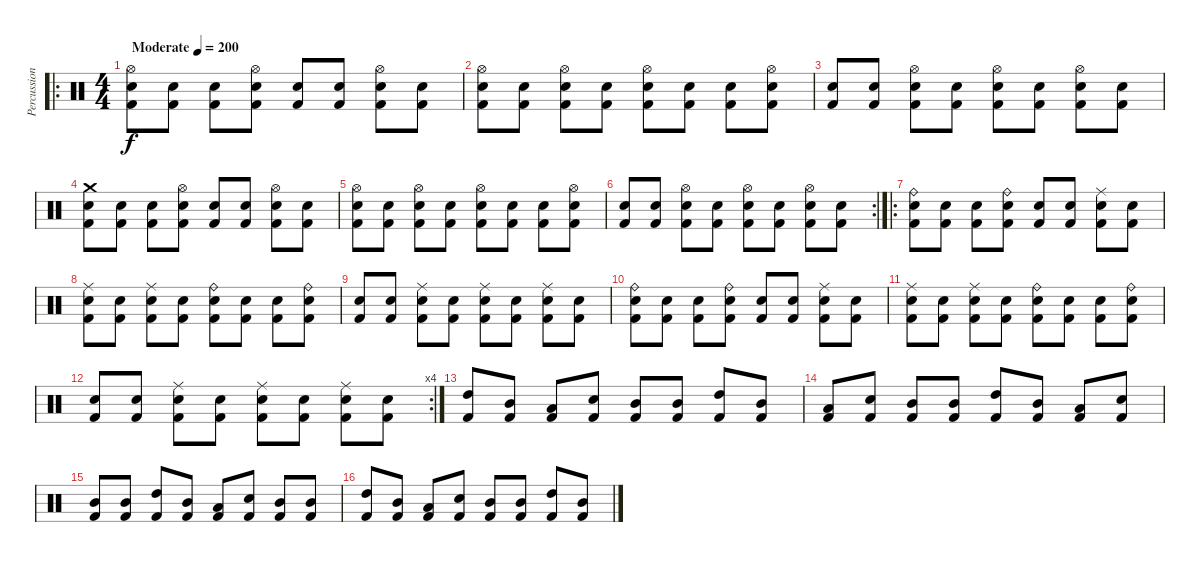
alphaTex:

\track ("Percussion" "Percussion") {instrument percussion}
\staff {score}
\articulation defaults
\ro
\ts (4 4)
\tempo (200 "Moderate")
\clef neutral
\ks c
("Hi-Hat (open)" "Electric Snare (hit)" "Kick (hit) 2").8{dy f} ("Electric Snare (hit)" "Kick (hit) 2").8 ("Electric Snare (hit)" "Kick (hit) 2").8 ("Hi-Hat (open)" "Electric Snare (hit)" "Kick (hit) 2").8 ("Electric Snare (hit)" "Kick (hit) 2").8 ("Electric Snare (hit)" "Kick (hit) 2").8 ("Hi-Hat (open)" "Electric Snare (hit)" "Kick (hit) 2").8 ("Electric Snare (hit)" "Kick (hit) 2").8 |
("Hi-Hat (open)" "Electric Snare (hit)" "Kick (hit) 2").8 ("Electric Snare (hit)" "Kick (hit) 2").8 ("Hi-Hat (open)" "Electric Snare (hit)" "Kick (hit) 2").8 ("Electric Snare (hit)" "Kick (hit) 2").8 ("Hi-Hat (open)" "Electric Snare (hit)" "Kick (hit) 2").8 ("Electric Snare (hit)" "Kick (hit) 2").8 ("Electric Snare (hit)" "Kick (hit) 2").8 ("Hi-Hat (open)" "Electric Snare (hit)" "Kick (hit) 2").8 |
("Electric Snare (hit)" "Kick (hit) 2").8 ("Electric Snare (hit)" "Kick (hit) 2").8 ("Hi-Hat (open)" "Electric Snare (hit)" "Kick (hit) 2").8 ("Electric Snare (hit)" "Kick (hit) 2").8 ("Hi-Hat (open)" "Electric Snare (hit)" "Kick (hit) 2").8 ("Electric Snare (hit)" "Kick (hit) 2").8 ("Hi-Hat (open)" "Electric Snare (hit)" "Kick (hit) 2").8 ("Electric Snare (hit)" "Kick (hit) 2").8 |
("Crash medium (hit)" "Electric Snare (hit)" "Kick (hit) 2").8 ("Electric Snare (hit)" "Kick (hit) 2").8 ("Electric Snare (hit)" "Kick (hit) 2").8 ("Hi-Hat (open)" "Electric Snare (hit)" "Kick (hit) 2").8 ("Electric Snare (hit)" "Kick (hit) 2").8 ("Electric Snare (hit)" "Kick (hit) 2").8 ("Hi-Hat (open)" "Electric Snare (hit)" "Kick (hit) 2").8 ("Electric Snare (hit)" "Kick (hit) 2").8 |
("Hi-Hat (open)" "Electric Snare (hit)" "Kick (hit) 2").8 ("Electric Snare (hit)" "Kick (hit) 2").8 ("Hi-Hat (open)" "Electric Snare (hit)" "Kick (hit) 2").8 ("Electric Snare (hit)" "Kick (hit) 2").8 ("Hi-Hat (open)" "Electric Snare (hit)" "Kick (hit) 2").8 ("Electric Snare (hit)" "Kick (hit) 2").8 ("Electric Snare (hit)" "Kick (hit) 2").8 ("Hi-Hat (open)" "Electric Snare (hit)" "Kick (hit) 2").8 |
\rc 2
("Electric Snare (hit)" "Kick (hit) 2").8 ("Electric Snare (hit)" "Kick (hit) 2").8 ("Hi-Hat (open)" "Electric Snare (hit)" "Kick (hit) 2").8 ("Electric Snare (hit)" "Kick (hit) 2").8 ("Hi-Hat (open)" "Electric Snare (hit)" "Kick (hit) 2").8 ("Electric Snare (hit)" "Kick (hit) 2").8 ("Hi-Hat (open)" "Electric Snare (hit)" "Kick (hit) 2").8 ("Electric Snare (hit)" "Kick (hit) 2").8 |
\ro
("Ride (bell)" "Electric Snare (hit)" "Kick (hit) 2").8 ("Electric Snare (hit)" "Kick (hit) 2").8 ("Electric Snare (hit)" "Kick (hit) 2").8 ("Ride (bell)" "Electric Snare (hit)" "Kick (hit) 2").8 ("Electric Snare (hit)" "Kick (hit) 2").8 ("Electric Snare (hit)" "Kick (hit) 2").8 ("Ride (middle)" "Electric Snare (hit)" "Kick (hit) 2").8 ("Electric Snare (hit)" "Kick (hit) 2").8 |
("Ride (middle)" "Electric Snare (hit)" "Kick (hit) 2").8 ("Electric Snare (hit)" "Kick (hit) 2").8 ("Ride (middle)" "Electric Snare (hit)" "Kick (hit) 2").8 ("Electric Snare (hit)" "Kick (hit) 2").8 ("Ride (bell)" "Electric Snare (hit)" "Kick (hit) 2").8 ("Electric Snare (hit)" "Kick (hit) 2").8 ("Electric Snare (hit)" "Kick (hit) 2").8 ("Ride (bell)" "Electric Snare (hit)" "Kick (hit) 2").8 |
("Electric Snare (hit)" "Kick (hit) 2").8 ("Electric Snare (hit)" "Kick (hit) 2").8 ("Ride (middle)" "Electric Snare (hit)" "Kick (hit) 2").8 ("Electric Snare (hit)" "Kick (hit) 2").8 ("Ride (middle)" "Electric Snare (hit)" "Kick (hit) 2").8 ("Electric Snare (hit)" "Kick (hit) 2").8 ("Ride (middle)" "Electric Snare (hit)" "Kick (hit) 2").8 ("Electric Snare (hit)" "Kick (hit) 2").8 |
("Ride (bell)" "Electric Snare (hit)" "Kick (hit) 2").8 ("Electric Snare (hit)" "Kick (hit) 2").8 ("Electric Snare (hit)" "Kick (hit) 2").8 ("Ride (bell)" "Electric Snare (hit)" "Kick (hit) 2").8 ("Electric Snare (hit)" "Kick (hit) 2").8 ("Electric Snare (hit)" "Kick (hit) 2").8 ("Ride (middle)" "Electric Snare (hit)" "Kick (hit) 2").8 ("Electric Snare (hit)" "Kick (hit) 2").8 |
("Ride (middle)" "Electric Snare (hit)" "Kick (hit) 2").8 ("Electric Snare (hit)" "Kick (hit) 2").8 ("Ride (middle)" "Electric Snare (hit)" "Kick (hit) 2").8 ("Electric Snare (hit)" "Kick (hit) 2").8 ("Ride (bell)" "Electric Snare (hit)" "Kick (hit) 2").8 ("Electric Snare (hit)" "Kick (hit) 2").8 ("Electric Snare (hit)" "Kick (hit) 2").8 ("Ride (bell)" "Electric Snare (hit)" "Kick (hit) 2").8 |
\rc 4
("Electric Snare (hit)" "Kick (hit) 2").8 ("Electric Snare (hit)" "Kick (hit) 2").8 ("Ride (middle)" "Electric Snare (hit)" "Kick (hit) 2").8 ("Electric Snare (hit)" "Kick (hit) 2").8 ("Ride (middle)" "Electric Snare (hit)" "Kick (hit) 2").8 ("Electric Snare (hit)" "Kick (hit) 2").8 ("Ride (middle)" "Electric Snare (hit)" "Kick (hit) 2").8 ("Electric Snare (hit)" "Kick (hit) 2").8 |
("High Tom (hit)" "Kick (hit) 2").8 ("Mid Tom (hit)" "Kick (hit) 2").8 ("Low Tom (hit)" "Kick (hit) 2").8 ("Electric Snare (hit)" "Kick (hit) 2").8 ("Mid Tom (hit)" "Kick (hit) 2").8 ("Mid Tom (hit)" "Kick (hit) 2").8 ("High Tom (hit)" "Kick (hit) 2").8 ("Mid Tom (hit)" "Kick (hit) 2").8 |
("Low Tom (hit)" "Kick (hit) 2").8 ("Electric Snare (hit)" "Kick (hit) 2").8 ("Mid Tom (hit)" "Kick (hit) 2").8 ("Mid Tom (hit)" "Kick (hit) 2").8 ("High Tom (hit)" "Kick (hit) 2").8 ("Mid Tom (hit)" "Kick (hit) 2").8 ("Low Tom (hit)" "Kick (hit) 2").8 ("Electric Snare (hit)" "Kick (hit) 2").8 |
("Mid Tom (hit)" "Kick (hit) 2").8 ("Mid Tom (hit)" "Kick (hit) 2").8 ("High Tom (hit)" "Kick (hit) 2").8 ("Mid Tom (hit)" "Kick (hit) 2").8 ("Low Tom (hit)" "Kick (hit) 2").8 ("Electric Snare (hit)" "Kick (hit) 2").8 ("Mid Tom (hit)" "Kick (hit) 2").8 ("Mid Tom (hit)" "Kick (hit) 2").8 |
("High Tom (hit)" "Kick (hit) 2").8 ("Mid Tom (hit)" "Kick (hit) 2").8 ("Low Tom (hit)" "Kick (hit) 2").8 ("Electric Snare (hit)" "Kick (hit) 2").8 ("Mid Tom (hit)" "Kick (hit) 2").8 ("Mid Tom (hit)" "Kick (hit) 2").8 ("High Tom (hit)" "Kick (hit) 2").8 ("Mid Tom (hit)" "Kick (hit) 2").8
